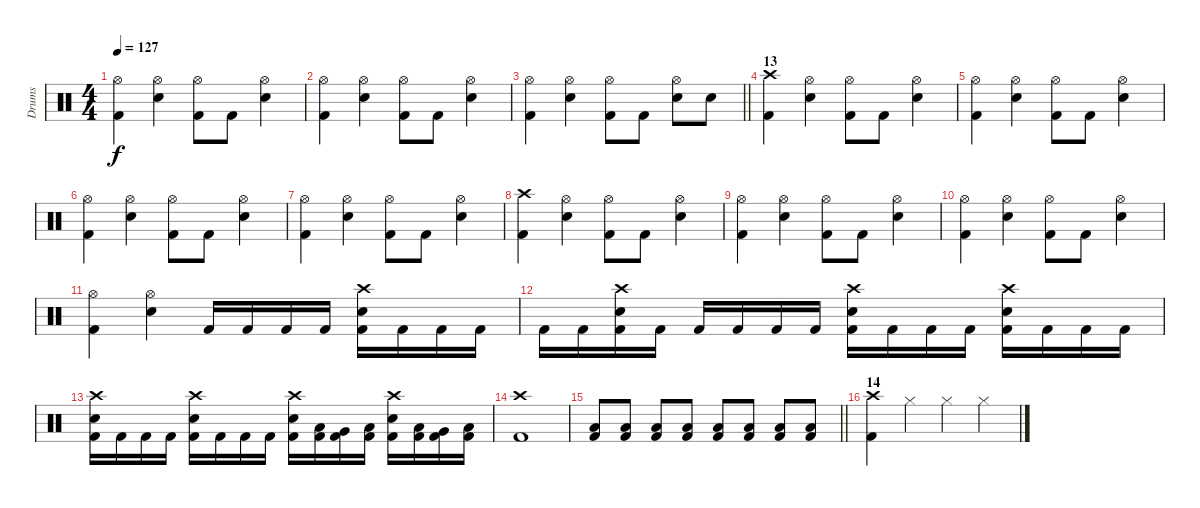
\track ("Drums" "Drums") {instrument percussion}
\staff {score}
\articulation defaults
\ts (4 4)
\tempo 127
\clef neutral
\ks c
("Hi-Hat (open)" "Kick (hit) 2").4{dy f} ("Hi-Hat (open)" "Snare (hit) 2").4 ("Hi-Hat (open)" "Kick (hit) 2").8 "Kick (hit) 2".8 ("Hi-Hat (open)" "Snare (hit) 2").4 |
("Hi-Hat (open)" "Kick (hit) 2").4 ("Hi-Hat (open)" "Snare (hit) 2").4 ("Hi-Hat (open)" "Kick (hit) 2").8 "Kick (hit) 2".8 ("Hi-Hat (open)" "Snare (hit) 2").4 |
\barLineRight lightlight
("Hi-Hat (open)" "Kick (hit) 2").4 ("Hi-Hat (open)" "Snare (hit) 2").4 ("Hi-Hat (open)" "Kick (hit) 2").8 "Kick (hit) 2".8 ("Hi-Hat (open)" "Snare (hit) 2").8 "Snare (hit) 2".8 |
\section ("" "13")
("Crash high (hit)" "Kick (hit) 2").4 ("Hi-Hat (open)" "Snare (hit) 2").4 ("Hi-Hat (open)" "Kick (hit) 2").8 "Kick (hit) 2".8 ("Hi-Hat (open)" "Snare (hit) 2").4 |
("Hi-Hat (open)" "Kick (hit) 2").4 ("Hi-Hat (open)" "Snare (hit) 2").4 ("Hi-Hat (open)" "Kick (hit) 2").8 "Kick (hit) 2".8 ("Hi-Hat (open)" "Snare (hit) 2").4 |
("Hi-Hat (open)" "Kick (hit) 2").4 ("Hi-Hat (open)" "Snare (hit) 2").4 ("Hi-Hat (open)" "Kick (hit) 2").8 "Kick (hit) 2".8 ("Hi-Hat (open)" "Snare (hit) 2").4 |
("Hi-Hat (open)" "Kick (hit) 2").4 ("Hi-Hat (open)" "Snare (hit) 2").4 ("Hi-Hat (open)" "Kick (hit) 2").8 "Kick (hit) 2".8 ("Hi-Hat (open)" "Snare (hit) 2").4 |
("Crash high (hit)" "Kick (hit) 2").4 ("Hi-Hat (open)" "Snare (hit) 2").4 ("Hi-Hat (open)" "Kick (hit) 2").8 "Kick (hit) 2".8 ("Hi-Hat (open)" "Snare (hit) 2").4 |
("Hi-Hat (open)" "Kick (hit) 2").4 ("Hi-Hat (open)" "Snare (hit) 2").4 ("Hi-Hat (open)" "Kick (hit) 2").8 "Kick (hit) 2".8 ("Hi-Hat (open)" "Snare (hit) 2").4 |
("Hi-Hat (open)" "Kick (hit) 2").4 ("Hi-Hat (open)" "Snare (hit) 2").4 ("Hi-Hat (open)" "Kick (hit) 2").8 "Kick (hit) 2".8 ("Hi-Hat (open)" "Snare (hit) 2").4 |
("Hi-Hat (open)" "Kick (hit) 2").4 ("Hi-Hat (open)" "Snare (hit) 2").4 "Kick (hit) 2".16 "Kick (hit) 2".16 "Kick (hit) 2".16 "Kick (hit) 2".16 ("Crash high (hit)" "Kick (hit) 2" "Snare (hit) 2").16 "Kick (hit) 2".16 "Kick (hit) 2".16 "Kick (hit) 2".16 |
"Kick (hit) 2".16 "Kick (hit) 2".16 ("Snare (hit) 2" "Kick (hit) 2" "Crash high (hit)").16 "Kick (hit) 2".16 "Kick (hit) 2".16 "Kick (hit) 2".16 "Kick (hit) 2".16 "Kick (hit) 2".16 ("Snare (hit) 2" "Kick (hit) 2" "Crash high (hit)").16 "Kick (hit) 2".16 "Kick (hit) 2".16 "Kick (hit) 2".16 ("Snare (hit) 2" "Kick (hit) 2" "Crash high (hit)").16 "Kick (hit) 2".16 "Kick (hit) 2".16 "Kick (hit) 2".16 |
("Snare (hit) 2" "Kick (hit) 2" "Crash high (hit)").16 "Kick (hit) 2".16 "Kick (hit) 2".16 "Kick (hit) 2".16 ("Snare (hit) 2" "Kick (hit) 2" "Crash high (hit)").16 "Kick (hit) 2".16 "Kick (hit) 2".16 "Kick (hit) 2".16 ("Snare (hit) 2" "Kick (hit) 2" "Crash high (hit)").16 ("Low Tom (hit)" "Kick (hit) 2").16 ("Very Low Tom (hit)" "Kick (hit) 2").16 ("Low Floor Tom (hit)" "Kick (hit) 2").16 ("Snare (hit) 2" "Kick (hit) 2" "Crash high (hit)").16 ("Low Tom (hit)" "Kick (hit) 2").16 ("Very Low Tom (hit)" "Kick (hit) 2").16 ("Low Floor Tom (hit)" "Kick (hit) 2").16 |
("Crash high (hit)" "Kick (hit) 2").1 |
\barLineRight lightlight
("Low Tom (hit)" "Kick (hit) 2").8 ("Low Tom (hit)" "Kick (hit) 2").8 ("Low Tom (hit)" "Kick (hit) 2").8 ("Low Tom (hit)" "Kick (hit) 2").8 ("Low Tom (hit)" "Kick (hit) 2").8 ("Low Tom (hit)" "Kick (hit) 2").8 ("Low Tom (hit)" "Kick (hit) 2").8 ("Low Tom (hit)" "Kick (hit) 2").8 |
\section ("" "14")
("Crash high (hit)" "Kick (hit) 2").4 "Hi-Hat (closed)".4 "Hi-Hat (closed)".4 "Hi-Hat (closed)".4
